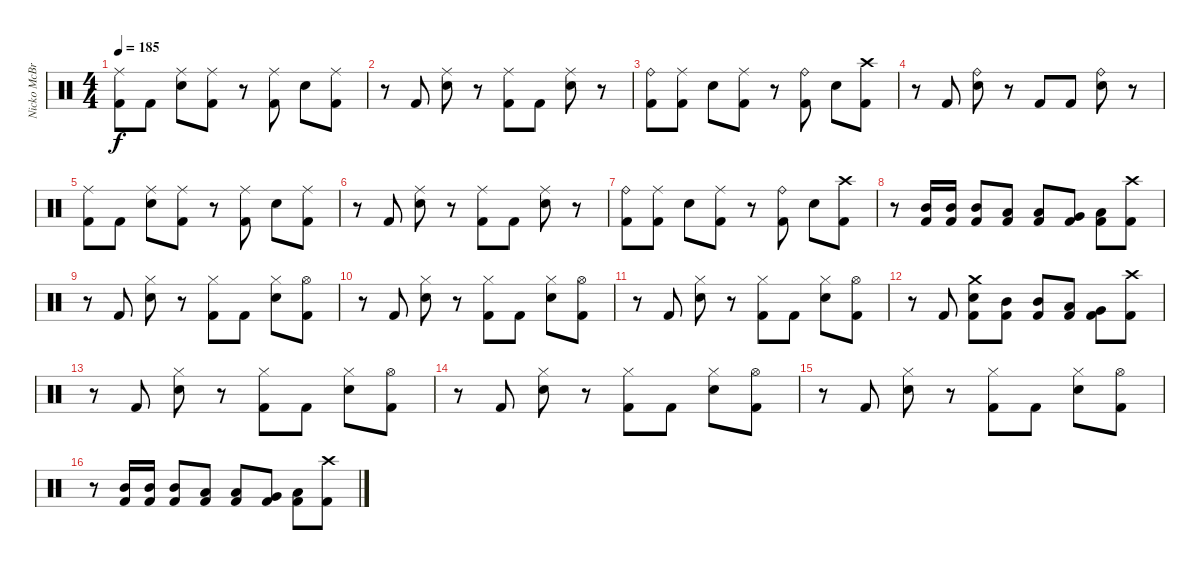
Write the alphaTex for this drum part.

\track ("Nicko McBrain" "Nicko McBr") {instrument percussion}
\staff {score}
\articulation defaults
\ts (4 4)
\tempo 185
\clef neutral
\ks c
("Ride (middle)" "Kick (hit) 2").8{dy f} "Kick (hit) 2".8 ("Ride (middle)" "Snare (hit) 2").8 ("Ride (middle)" "Kick (hit) 2").8 r.8 ("Ride (middle)" "Kick (hit) 2").8 "Snare (hit) 2".8 ("Ride (middle)" "Kick (hit) 2").8 |
r.8 "Kick (hit) 2".8 ("Ride (middle)" "Snare (hit) 2").8 r.8 ("Ride (middle)" "Kick (hit) 2").8 "Kick (hit) 2".8 ("Ride (middle)" "Snare (hit) 2").8 r.8 |
("Ride (bell)" "Kick (hit) 2").8 ("Ride (middle)" "Kick (hit) 2").8 "Snare (hit) 2".8 ("Ride (middle)" "Kick (hit) 2").8 r.8 ("Ride (bell)" "Kick (hit) 2").8 "Snare (hit) 2".8 ("Crash high (hit)" "Kick (hit) 2").8 |
r.8 "Kick (hit) 2".8 ("Ride (bell)" "Snare (hit) 2").8 r.8 "Kick (hit) 2".8 "Kick (hit) 2".8 ("Ride (bell)" "Snare (hit) 2").8 r.8 |
("Ride (middle)" "Kick (hit) 2").8 "Kick (hit) 2".8 ("Ride (middle)" "Snare (hit) 2").8 ("Ride (middle)" "Kick (hit) 2").8 r.8 ("Ride (middle)" "Kick (hit) 2").8 "Snare (hit) 2".8 ("Ride (middle)" "Kick (hit) 2").8 |
r.8 "Kick (hit) 2".8 ("Ride (middle)" "Snare (hit) 2").8 r.8 ("Ride (middle)" "Kick (hit) 2").8 "Kick (hit) 2".8 ("Ride (middle)" "Snare (hit) 2").8 r.8 |
("Ride (bell)" "Kick (hit) 2").8 ("Ride (middle)" "Kick (hit) 2").8 "Snare (hit) 2".8 ("Ride (middle)" "Kick (hit) 2").8 r.8 ("Ride (bell)" "Kick (hit) 2").8 "Snare (hit) 2".8 ("Crash high (hit)" "Kick (hit) 2").8 |
r.8 ("Mid Tom (hit)" "Kick (hit) 2").16 ("Mid Tom (hit)" "Kick (hit) 2").16 ("Mid Tom (hit)" "Kick (hit) 2").8 ("Low Tom (hit)" "Kick (hit) 2").8 ("Low Tom (hit)" "Kick (hit) 2").8 ("Very Low Tom (hit)" "Kick (hit) 2").8 ("Low Floor Tom (hit)" "Kick (hit) 2").8 ("Crash high (hit)" "Kick (hit) 2").8 |
r.8 "Kick (hit) 2".8 ("Hi-Hat (closed)" "Snare (hit) 2").8 r.8 ("Hi-Hat (closed)" "Kick (hit) 2").8 "Kick (hit) 2".8 ("Hi-Hat (closed)" "Snare (hit) 2").8 ("Hi-Hat (open)" "Kick (hit) 2").8 |
r.8 "Kick (hit) 2".8 ("Hi-Hat (closed)" "Snare (hit) 2").8 r.8 ("Hi-Hat (closed)" "Kick (hit) 2").8 "Kick (hit) 2".8 ("Hi-Hat (closed)" "Snare (hit) 2").8 ("Hi-Hat (open)" "Kick (hit) 2").8 |
r.8 "Kick (hit) 2".8 ("Hi-Hat (closed)" "Snare (hit) 2").8 r.8 ("Hi-Hat (closed)" "Kick (hit) 2").8 "Kick (hit) 2".8 ("Hi-Hat (closed)" "Snare (hit) 2").8 ("Hi-Hat (open)" "Kick (hit) 2").8 |
r.8 "Kick (hit) 2".8 ("Crash medium (hit)" "Snare (hit) 2" "Kick (hit) 2").8 ("Mid Tom (hit)" "Kick (hit) 2").8 ("Mid Tom (hit)" "Kick (hit) 2").8 ("Low Tom (hit)" "Kick (hit) 2").8 ("Very Low Tom (hit)" "Kick (hit) 2").8 ("Crash high (hit)" "Kick (hit) 2").8 |
r.8 "Kick (hit) 2".8 ("Hi-Hat (closed)" "Snare (hit) 2").8 r.8 ("Hi-Hat (closed)" "Kick (hit) 2").8 "Kick (hit) 2".8 ("Hi-Hat (closed)" "Snare (hit) 2").8 ("Hi-Hat (open)" "Kick (hit) 2").8 |
r.8 "Kick (hit) 2".8 ("Hi-Hat (closed)" "Snare (hit) 2").8 r.8 ("Hi-Hat (closed)" "Kick (hit) 2").8 "Kick (hit) 2".8 ("Hi-Hat (closed)" "Snare (hit) 2").8 ("Hi-Hat (open)" "Kick (hit) 2").8 |
r.8 "Kick (hit) 2".8 ("Hi-Hat (closed)" "Snare (hit) 2").8 r.8 ("Hi-Hat (closed)" "Kick (hit) 2").8 "Kick (hit) 2".8 ("Hi-Hat (closed)" "Snare (hit) 2").8 ("Hi-Hat (open)" "Kick (hit) 2").8 |
r.8 ("Mid Tom (hit)" "Kick (hit) 2").16 ("Mid Tom (hit)" "Kick (hit) 2").16 ("Mid Tom (hit)" "Kick (hit) 2").8 ("Low Tom (hit)" "Kick (hit) 2").8 ("Low Tom (hit)" "Kick (hit) 2").8 ("Very Low Tom (hit)" "Kick (hit) 2").8 ("Low Floor Tom (hit)" "Kick (hit) 2").8 ("Crash high (hit)" "Kick (hit) 2").8
